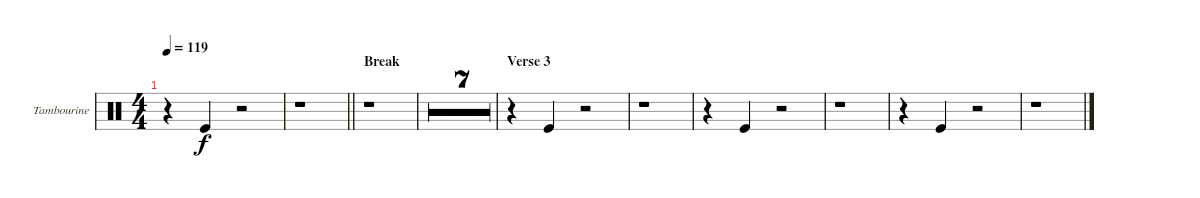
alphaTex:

\defaultSystemsLayout 4
\bracketExtendMode groupsimilarinstruments
\useSystemSignSeparator
\multiBarRest
\multiTrackTrackNamePolicy allsystems
\firstSystemTrackNameMode fullname
\firstSystemTrackNameOrientation horizontal
\otherSystemsTrackNameOrientation horizontal
\defaultBarNumberDisplay FirstOfSystem
\track ("Tambourine" "Tamb.") {multiBarRest instrument percussion}
\staff {score}
\articulation defaults
\ts (4 4)
\tempo 119
\clef neutral
\ks aminor
r.4{dy f} "Kick (hit)".4 r.2 |
\barLineRight lightlight
r.1 |
\section ("" "Break")
r.1 |
r.1 |
r.1 |
r.1 |
r.1 |
r.1 |
r.1 |
\barLineRight lightlight
r.1 |
\section ("" "Verse 3")
r.4 "Kick (hit)".4 r.2 |
r.1 |
r.4 "Kick (hit)".4 r.2 |
r.1 |
r.4 "Kick (hit)".4 r.2 |
r.1
